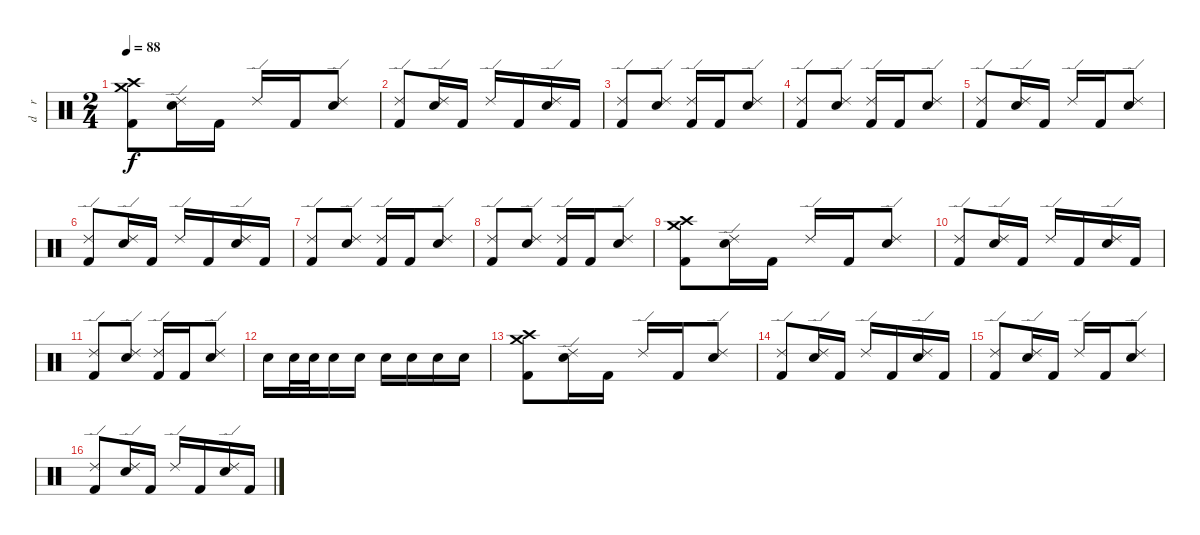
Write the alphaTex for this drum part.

\track ("d    r     u    m    s" "d    r    ") {instrument percussion}
\staff {score}
\articulation defaults
\ts (2 4)
\tempo 88
\clef neutral
\ks c
("Crash high (hit)" "Crash medium (hit)" "Kick (hit) 2").8{dy f} ("Ride (edge) 2" "Electric Snare (hit)").16 "Kick (hit) 2".16 "Ride (edge) 2".16 "Kick (hit) 2".16 ("Ride (edge) 2" "Electric Snare (hit)").8 |
("Ride (edge) 2" "Kick (hit) 2").8 ("Ride (edge) 2" "Electric Snare (hit)").16 "Kick (hit) 2".16 "Ride (edge) 2".16 "Kick (hit) 2".16 ("Ride (edge) 2" "Electric Snare (hit)").16 "Kick (hit) 2".16 |
("Ride (edge) 2" "Kick (hit) 2").8 ("Ride (edge) 2" "Electric Snare (hit)").8 ("Ride (edge) 2" "Kick (hit) 2").16 "Kick (hit) 2".16 ("Ride (edge) 2" "Electric Snare (hit)").8 |
("Ride (edge) 2" "Kick (hit) 2").8 ("Ride (edge) 2" "Electric Snare (hit)").8 ("Ride (edge) 2" "Kick (hit) 2").16 "Kick (hit) 2".16 ("Ride (edge) 2" "Electric Snare (hit)").8 |
("Ride (edge) 2" "Kick (hit) 2").8 ("Ride (edge) 2" "Electric Snare (hit)").16 "Kick (hit) 2".16 "Ride (edge) 2".16 "Kick (hit) 2".16 ("Ride (edge) 2" "Electric Snare (hit)").8 |
("Ride (edge) 2" "Kick (hit) 2").8 ("Ride (edge) 2" "Electric Snare (hit)").16 "Kick (hit) 2".16 "Ride (edge) 2".16 "Kick (hit) 2".16 ("Ride (edge) 2" "Electric Snare (hit)").16 "Kick (hit) 2".16 |
("Ride (edge) 2" "Kick (hit) 2").8 ("Ride (edge) 2" "Electric Snare (hit)").8 ("Ride (edge) 2" "Kick (hit) 2").16 "Kick (hit) 2".16 ("Ride (edge) 2" "Electric Snare (hit)").8 |
("Ride (edge) 2" "Kick (hit) 2").8 ("Ride (edge) 2" "Electric Snare (hit)").8 ("Ride (edge) 2" "Kick (hit) 2").16 "Kick (hit) 2".16 ("Ride (edge) 2" "Electric Snare (hit)").8 |
("Crash high (hit)" "Crash medium (hit)" "Kick (hit) 2").8 ("Ride (edge) 2" "Electric Snare (hit)").16 "Kick (hit) 2".16 "Ride (edge) 2".16 "Kick (hit) 2".16 ("Ride (edge) 2" "Electric Snare (hit)").8 |
("Ride (edge) 2" "Kick (hit) 2").8 ("Ride (edge) 2" "Electric Snare (hit)").16 "Kick (hit) 2".16 "Ride (edge) 2".16 "Kick (hit) 2".16 ("Ride (edge) 2" "Electric Snare (hit)").16 "Kick (hit) 2".16 |
("Ride (edge) 2" "Kick (hit) 2").8 ("Ride (edge) 2" "Electric Snare (hit)").8 ("Ride (edge) 2" "Kick (hit) 2").16 "Kick (hit) 2".16 ("Ride (edge) 2" "Electric Snare (hit)").8 |
"Electric Snare (hit)".16 "Electric Snare (hit)".32 "Electric Snare (hit)".32 "Electric Snare (hit)".16 "Electric Snare (hit)".16 "Electric Snare (hit)".16 "Electric Snare (hit)".16 "Electric Snare (hit)".16 "Electric Snare (hit)".16 |
("Crash high (hit)" "Crash medium (hit)" "Kick (hit) 2").8 ("Ride (edge) 2" "Electric Snare (hit)").16 "Kick (hit) 2".16 "Ride (edge) 2".16 "Kick (hit) 2".16 ("Ride (edge) 2" "Electric Snare (hit)").8 |
("Ride (edge) 2" "Kick (hit) 2").8 ("Ride (edge) 2" "Electric Snare (hit)").16 "Kick (hit) 2".16 "Ride (edge) 2".16 "Kick (hit) 2".16 ("Ride (edge) 2" "Electric Snare (hit)").16 "Kick (hit) 2".16 |
("Ride (edge) 2" "Kick (hit) 2").8 ("Ride (edge) 2" "Electric Snare (hit)").16 "Kick (hit) 2".16 "Ride (edge) 2".16 "Kick (hit) 2".16 ("Ride (edge) 2" "Electric Snare (hit)").8 |
("Ride (edge) 2" "Kick (hit) 2").8 ("Ride (edge) 2" "Electric Snare (hit)").16 "Kick (hit) 2".16 "Ride (edge) 2".16 "Kick (hit) 2".16 ("Ride (edge) 2" "Electric Snare (hit)").16 "Kick (hit) 2".16
